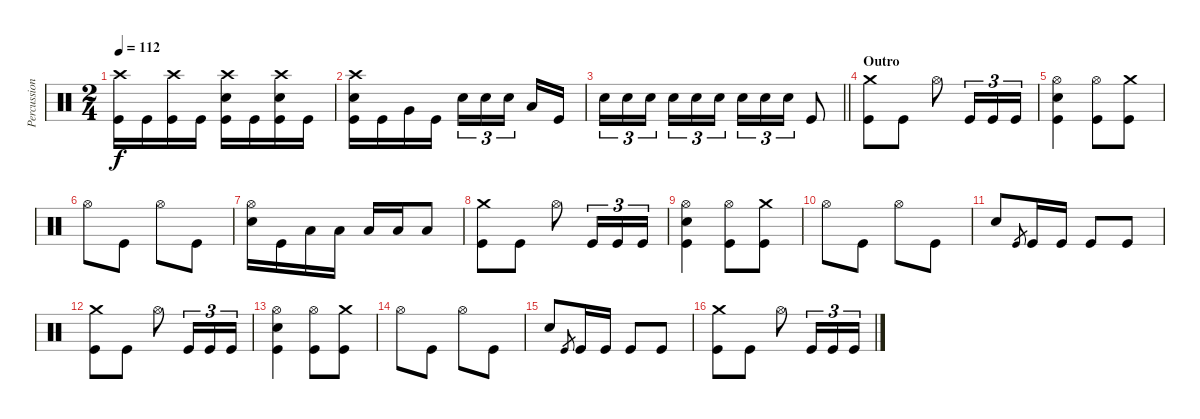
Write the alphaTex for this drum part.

\track ("Percussion" "Percussion") {instrument percussion}
\staff {score}
\articulation defaults
\ts (2 4)
\tempo 112
\clef neutral
\ks c
("Crash high (hit)" "Kick (hit)").16{dy f} "Kick (hit)".16 ("Crash high (hit)" "Kick (hit)").16 "Kick (hit)".16 ("Crash high (hit)" "Electric Snare (hit)" "Kick (hit)").16 "Kick (hit)".16 ("Crash high (hit)" "Electric Snare (hit)" "Kick (hit)").16 "Kick (hit)".16 |
("Crash high (hit)" "Electric Snare (hit)" "Kick (hit)").16 "Kick (hit)".16 "Very Low Tom (hit)".16 "Kick (hit)".16 "Electric Snare (hit)".16{tu (3 2)} "Electric Snare (hit)".16{tu (3 2)} "Electric Snare (hit)".16{tu (3 2) beam splitsecondary} "Low Floor Tom (hit)".16 "Kick (hit)".16 |
\barLineRight lightlight "Electric Snare (hit)".16{tu (3 2)} "Electric Snare (hit)".16{tu (3 2)} "Electric Snare (hit)".16{tu (3 2) beam splitsecondary} "Electric Snare (hit)".16{tu (3 2)} "Electric Snare (hit)".16{tu (3 2)} "Electric Snare (hit)".16{tu (3 2)} "Electric Snare (hit)".16{tu (3 2)} "Electric Snare (hit)".16{tu (3 2)} "Electric Snare (hit)".16{tu (3 2)} "Kick (hit)".8
|
\section ("" "Outro")
("Crash medium (hit)" "Kick (hit)").8 "Kick (hit)".8 "Hi-Hat (open)".8 "Kick (hit)".16{tu (3 2)} "Kick (hit)".16{tu (3 2)} "Kick (hit)".16{tu (3 2)} |
("Hi-Hat (open)" "Electric Snare (hit)" "Kick (hit)").4 ("Hi-Hat (open)" "Kick (hit)").8 ("Crash medium (hit)" "Kick (hit)").8 |
"Hi-Hat (open)".8 "Kick (hit)".8 "Hi-Hat (open)".8 "Kick (hit)".8 |
("Hi-Hat (open)" "Electric Snare (hit)").16 "Kick (hit)".16 "Low Floor Tom (hit)".16 "Low Floor Tom (hit)".16 "Low Floor Tom (hit)".16 "Low Floor Tom (hit)".16 "Low Floor Tom (hit)".8 |
("Crash medium (hit)" "Kick (hit)").8 "Kick (hit)".8 "Hi-Hat (open)".8 "Kick (hit)".16{tu (3 2)} "Kick (hit)".16{tu (3 2)} "Kick (hit)".16{tu (3 2)} |
("Hi-Hat (open)" "Electric Snare (hit)" "Kick (hit)").4 ("Hi-Hat (open)" "Kick (hit)").8 ("Crash medium (hit)" "Kick (hit)").8 |
"Hi-Hat (open)".8 "Kick (hit)".8 "Hi-Hat (open)".8 "Kick (hit)".8 |
"Electric Snare (hit)".8 "Kick (hit)".8{gr} "Kick (hit)".16 "Kick (hit)".16 "Kick (hit)".8 "Kick (hit)".8 |
("Crash medium (hit)" "Kick (hit)").8 "Kick (hit)".8 "Hi-Hat (open)".8 "Kick (hit)".16{tu (3 2)} "Kick (hit)".16{tu (3 2)} "Kick (hit)".16{tu (3 2)} |
("Hi-Hat (open)" "Electric Snare (hit)" "Kick (hit)").4 ("Hi-Hat (open)" "Kick (hit)").8 ("Crash medium (hit)" "Kick (hit)").8 |
"Hi-Hat (open)".8 "Kick (hit)".8 "Hi-Hat (open)".8 "Kick (hit)".8 |
"Electric Snare (hit)".8 "Kick (hit)".8{gr} "Kick (hit)".16 "Kick (hit)".16 "Kick (hit)".8 "Kick (hit)".8 |
("Crash medium (hit)" "Kick (hit)").8 "Kick (hit)".8 "Hi-Hat (open)".8 "Kick (hit)".16{tu (3 2)} "Kick (hit)".16{tu (3 2)} "Kick (hit)".16{tu (3 2)}
